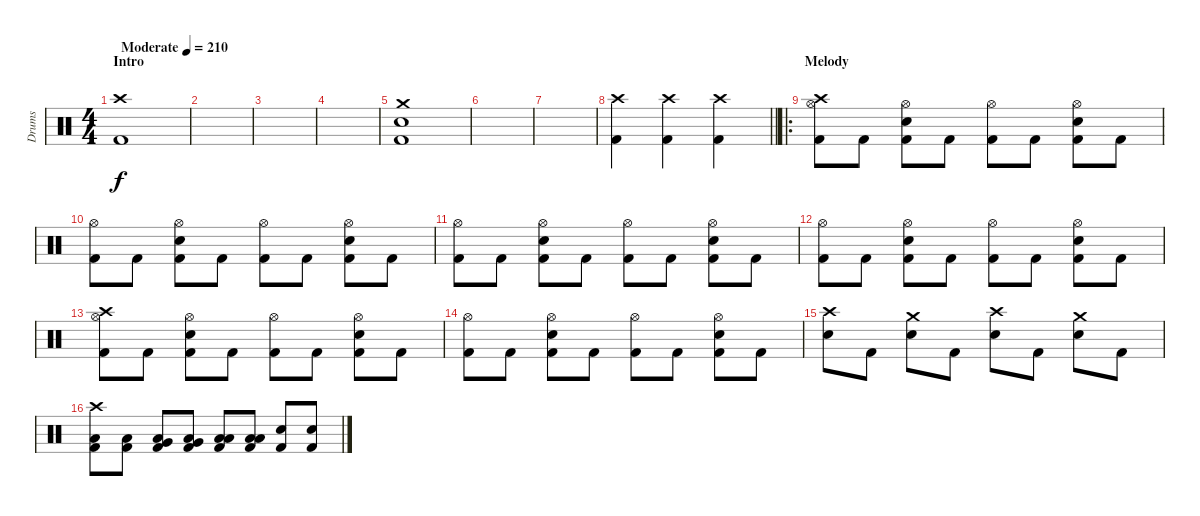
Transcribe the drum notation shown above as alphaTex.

\track ("Drums" "Drums") {instrument percussion}
\staff {score}
\articulation defaults
\ts (4 4)
\section ("" "Intro")
\tempo (210 "Moderate")
\clef neutral
\ks c
("Crash high (hit)" "Kick (hit) 2").1{dy f} |
|
|
|
("Crash medium (hit)" "Snare (hit) 2" "Kick (hit) 2").1 |
|
|
\barLineRight lightlight
("Crash high (hit)" "Kick (hit) 2").4 ("Crash high (hit)" "Kick (hit) 2").4 ("Crash high (hit)" "Kick (hit) 2").4 |
\ro
\section ("" "Melody")
("Crash high (hit)" "Hi-Hat (open)" "Kick (hit) 2").8 "Kick (hit) 2".8 ("Hi-Hat (open)" "Snare (hit) 2" "Kick (hit) 2").8 "Kick (hit) 2".8 ("Hi-Hat (open)" "Kick (hit) 2").8 "Kick (hit) 2".8 ("Hi-Hat (open)" "Snare (hit) 2" "Kick (hit) 2").8 "Kick (hit) 2".8 |
("Hi-Hat (open)" "Kick (hit) 2").8 "Kick (hit) 2".8 ("Hi-Hat (open)" "Snare (hit) 2" "Kick (hit) 2").8 "Kick (hit) 2".8 ("Hi-Hat (open)" "Kick (hit) 2").8 "Kick (hit) 2".8 ("Hi-Hat (open)" "Snare (hit) 2" "Kick (hit) 2").8 "Kick (hit) 2".8 |
("Hi-Hat (open)" "Kick (hit) 2").8 "Kick (hit) 2".8 ("Hi-Hat (open)" "Snare (hit) 2" "Kick (hit) 2").8 "Kick (hit) 2".8 ("Hi-Hat (open)" "Kick (hit) 2").8 "Kick (hit) 2".8 ("Hi-Hat (open)" "Snare (hit) 2" "Kick (hit) 2").8 "Kick (hit) 2".8 |
("Hi-Hat (open)" "Kick (hit) 2").8 "Kick (hit) 2".8 ("Hi-Hat (open)" "Snare (hit) 2" "Kick (hit) 2").8 "Kick (hit) 2".8 ("Hi-Hat (open)" "Kick (hit) 2").8 "Kick (hit) 2".8 ("Hi-Hat (open)" "Snare (hit) 2" "Kick (hit) 2").8 "Kick (hit) 2".8 |
("Crash high (hit)" "Hi-Hat (open)" "Kick (hit) 2").8 "Kick (hit) 2".8 ("Hi-Hat (open)" "Snare (hit) 2" "Kick (hit) 2").8 "Kick (hit) 2".8 ("Hi-Hat (open)" "Kick (hit) 2").8 "Kick (hit) 2".8 ("Hi-Hat (open)" "Snare (hit) 2" "Kick (hit) 2").8 "Kick (hit) 2".8 |
("Hi-Hat (open)" "Kick (hit) 2").8 "Kick (hit) 2".8 ("Hi-Hat (open)" "Snare (hit) 2" "Kick (hit) 2").8 "Kick (hit) 2".8 ("Hi-Hat (open)" "Kick (hit) 2").8 "Kick (hit) 2".8 ("Hi-Hat (open)" "Snare (hit) 2" "Kick (hit) 2").8 "Kick (hit) 2".8 |
("Crash high (hit)" "Snare (hit) 2").8 "Kick (hit) 2".8 ("Crash medium (hit)" "Snare (hit) 2").8 "Kick (hit) 2".8 ("Crash high (hit)" "Snare (hit) 2").8 "Kick (hit) 2".8 ("Crash medium (hit)" "Snare (hit) 2").8 "Kick (hit) 2".8 |
("Crash high (hit)" "Low Floor Tom (hit)" "Kick (hit) 2").8 ("Low Floor Tom (hit)" "Kick (hit) 2").8 ("Very Low Tom (hit)" "Low Floor Tom (hit)" "Kick (hit) 2").8 ("Very Low Tom (hit)" "Low Floor Tom (hit)" "Kick (hit) 2").8 ("Low Tom (hit)" "Low Floor Tom (hit)" "Kick (hit) 2").8 ("Low Tom (hit)" "Low Floor Tom (hit)" "Kick (hit) 2").8 ("Snare (hit) 2" "Kick (hit) 2").8 ("Snare (hit) 2" "Kick (hit) 2").8
